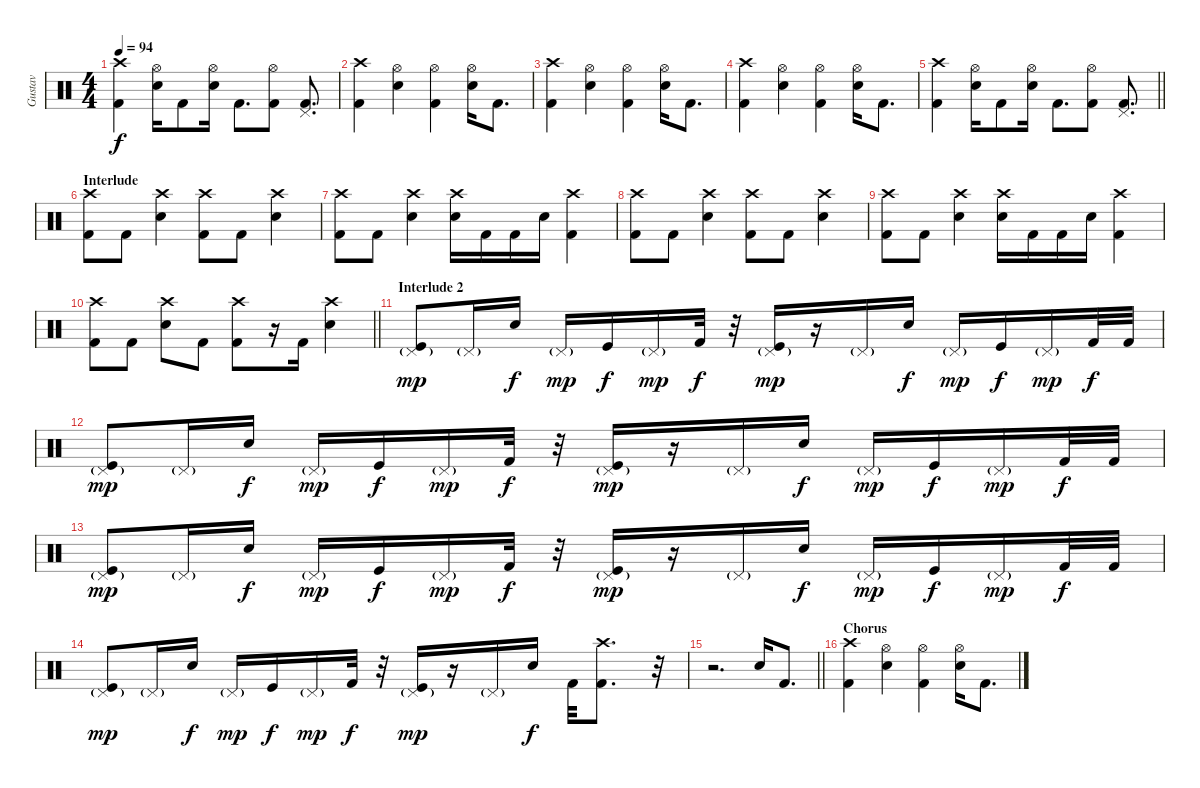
\track ("Gustav" "Gustav") {instrument percussion}
\staff {score}
\articulation defaults
\ts (4 4)
\tempo 94
\clef neutral
\ks c
("Crash high (hit)" "Kick (hit) 2").4{dy f} ("Hi-Hat (open)" "Electric Snare (hit)").16 "Kick (hit) 2".8 ("Hi-Hat (open)" "Electric Snare (hit)").16 "Kick (hit) 2".8{d} ("Hi-Hat (open)" "Kick (hit) 2").8 ("Pedal Hi-Hat (hit)" "Kick (hit) 2").8{d} |
("Crash high (hit)" "Kick (hit) 2").4 ("Hi-Hat (open)" "Electric Snare (hit)").4 ("Hi-Hat (open)" "Kick (hit) 2").4 ("Hi-Hat (open)" "Electric Snare (hit)").16 "Kick (hit) 2".8{d} |
("Crash high (hit)" "Kick (hit) 2").4 ("Hi-Hat (open)" "Electric Snare (hit)").4 ("Hi-Hat (open)" "Kick (hit) 2").4 ("Hi-Hat (open)" "Electric Snare (hit)").16 "Kick (hit) 2".8{d} |
("Crash high (hit)" "Kick (hit) 2").4 ("Hi-Hat (open)" "Electric Snare (hit)").4 ("Hi-Hat (open)" "Kick (hit) 2").4 ("Hi-Hat (open)" "Electric Snare (hit)").16 "Kick (hit) 2".8{d} |
\barLineRight lightlight
("Crash high (hit)" "Kick (hit) 2").4 ("Hi-Hat (open)" "Electric Snare (hit)").16 "Kick (hit) 2".8 ("Hi-Hat (open)" "Electric Snare (hit)").16 "Kick (hit) 2".8{d} ("Hi-Hat (open)" "Kick (hit) 2").8 ("Pedal Hi-Hat (hit)" "Kick (hit) 2").8{d} |
\section ("" "Interlude")
("Crash high (hit)" "Kick (hit) 2").8 "Kick (hit) 2".8 ("Crash high (hit)" "Electric Snare (hit)").4 ("Crash high (hit)" "Kick (hit) 2").8 "Kick (hit) 2".8 ("Crash high (hit)" "Electric Snare (hit)").4 |
("Crash high (hit)" "Kick (hit) 2").8 "Kick (hit) 2".8 ("Crash high (hit)" "Electric Snare (hit)").4 ("Crash high (hit)" "Electric Snare (hit)").16 "Kick (hit) 2".16 "Kick (hit) 2".16 "Electric Snare (hit)".16 ("Crash high (hit)" "Kick (hit) 2").4 |
("Crash high (hit)" "Kick (hit) 2").8 "Kick (hit) 2".8 ("Crash high (hit)" "Electric Snare (hit)").4 ("Crash high (hit)" "Kick (hit) 2").8 "Kick (hit) 2".8 ("Crash high (hit)" "Electric Snare (hit)").4 |
("Crash high (hit)" "Kick (hit) 2").8 "Kick (hit) 2".8 ("Crash high (hit)" "Electric Snare (hit)").4 ("Crash high (hit)" "Electric Snare (hit)").16 "Kick (hit) 2".16 "Kick (hit) 2".16 "Electric Snare (hit)".16 ("Crash high (hit)" "Kick (hit) 2").4 |
\barLineRight lightlight
("Crash high (hit)" "Kick (hit) 2").8 "Kick (hit) 2".8 ("Crash high (hit)" "Electric Snare (hit)").8 "Kick (hit) 2".8 ("Crash high (hit)" "Kick (hit) 2").8 r.16 "Kick (hit) 2".16 ("Crash high (hit)" "Electric Snare (hit)").4 |
\section ("" "Interlude 2")
("Pedal Hi-Hat (hit)"{g} "Kick (hit)").8{dy mp} "Pedal Hi-Hat (hit)"{g}.16 "Electric Snare (hit)".16{dy f} "Pedal Hi-Hat (hit)"{g}.16{dy mp} "Kick (hit)".16{dy f} "Pedal Hi-Hat (hit)"{g}.16{dy mp} "Kick (hit) 2".32{dy f} r.32 ("Pedal Hi-Hat (hit)"{g} "Kick (hit)").16{dy mp} r.16 "Pedal Hi-Hat (hit)"{g}.16 "Electric Snare (hit)".16{dy f} "Pedal Hi-Hat (hit)"{g}.16{dy mp} "Kick (hit)".16{dy f} "Pedal Hi-Hat (hit)"{g}.16{dy mp} "Kick (hit) 2".32{dy f} "Kick (hit) 2".32 |
("Pedal Hi-Hat (hit)"{g} "Kick (hit)").8{dy mp} "Pedal Hi-Hat (hit)"{g}.16 "Electric Snare (hit)".16{dy f} "Pedal Hi-Hat (hit)"{g}.16{dy mp} "Kick (hit)".16{dy f} "Pedal Hi-Hat (hit)"{g}.16{dy mp} "Kick (hit) 2".32{dy f} r.32 ("Pedal Hi-Hat (hit)"{g} "Kick (hit)").16{dy mp} r.16 "Pedal Hi-Hat (hit)"{g}.16 "Electric Snare (hit)".16{dy f} "Pedal Hi-Hat (hit)"{g}.16{dy mp} "Kick (hit)".16{dy f} "Pedal Hi-Hat (hit)"{g}.16{dy mp} "Kick (hit) 2".32{dy f} "Kick (hit) 2".32 |
("Pedal Hi-Hat (hit)"{g} "Kick (hit)").8{dy mp} "Pedal Hi-Hat (hit)"{g}.16 "Electric Snare (hit)".16{dy f} "Pedal Hi-Hat (hit)"{g}.16{dy mp} "Kick (hit)".16{dy f} "Pedal Hi-Hat (hit)"{g}.16{dy mp} "Kick (hit) 2".32{dy f} r.32 ("Pedal Hi-Hat (hit)"{g} "Kick (hit)").16{dy mp} r.16 "Pedal Hi-Hat (hit)"{g}.16 "Electric Snare (hit)".16{dy f} "Pedal Hi-Hat (hit)"{g}.16{dy mp} "Kick (hit)".16{dy f} "Pedal Hi-Hat (hit)"{g}.16{dy mp} "Kick (hit) 2".32{dy f} "Kick (hit) 2".32 |
("Pedal Hi-Hat (hit)"{g} "Kick (hit)").8{dy mp} "Pedal Hi-Hat (hit)"{g}.16 "Electric Snare (hit)".16{dy f} "Pedal Hi-Hat (hit)"{g}.16{dy mp} "Kick (hit)".16{dy f} "Pedal Hi-Hat (hit)"{g}.16{dy mp} "Kick (hit) 2".32{dy f} r.32 ("Pedal Hi-Hat (hit)"{g} "Kick (hit)").16{dy mp} r.16 "Pedal Hi-Hat (hit)"{g}.16 "Electric Snare (hit)".16{dy f} "Kick (hit) 2".32 ("Crash high (hit)" "Kick (hit) 2").8{d} r.32 |
\barLineRight lightlight
r.2{d} "Electric Snare (hit)".16 "Kick (hit) 2".8{d} |
\section ("" "Chorus")
("Crash high (hit)" "Kick (hit) 2").4 ("Hi-Hat (open)" "Electric Snare (hit)").4 ("Hi-Hat (open)" "Kick (hit) 2").4 ("Hi-Hat (open)" "Electric Snare (hit)").16 "Kick (hit) 2".8{d}
